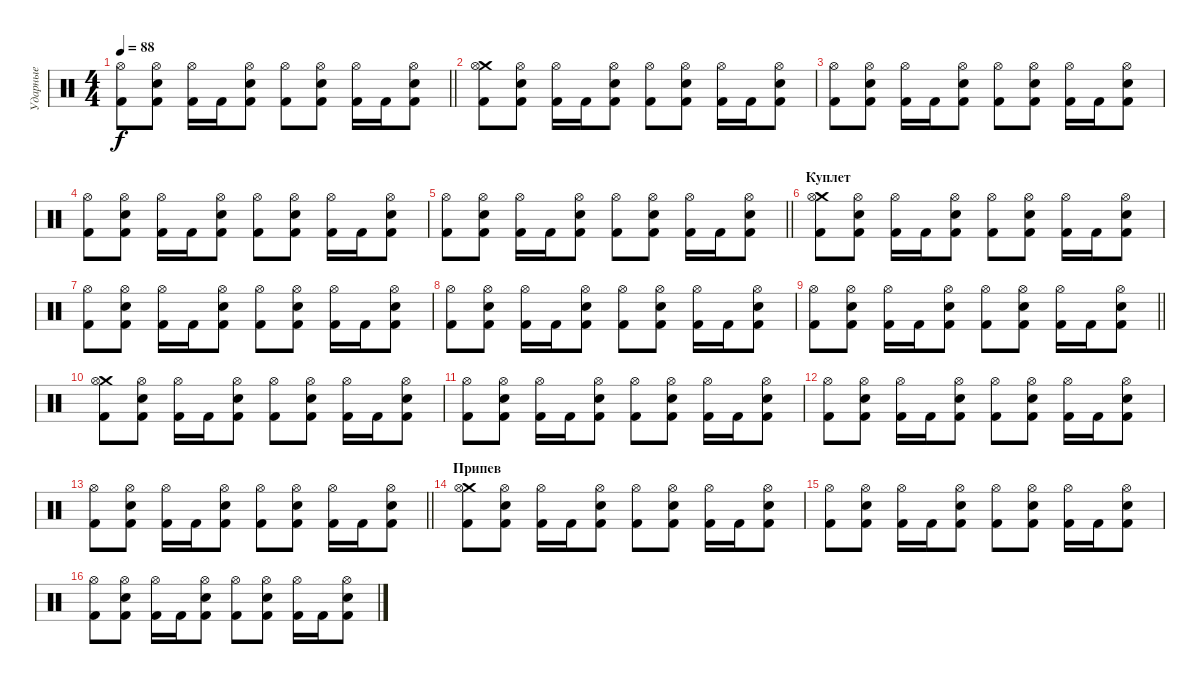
\track ("Ударные" "Ударные") {instrument percussion}
\staff {score}
\articulation defaults
\ts (4 4)
\tempo 88
\clef neutral
\barLineRight lightlight
\ks c
("Kick (hit) 2" "Hi-Hat (open)").8{dy f} ("Snare (hit) 2" "Kick (hit) 2" "Hi-Hat (open)").8 ("Kick (hit) 2" "Hi-Hat (open)").16 "Kick (hit) 2".16 ("Snare (hit) 2" "Kick (hit) 2" "Hi-Hat (open)").8 ("Kick (hit) 2" "Hi-Hat (open)").8 ("Snare (hit) 2" "Kick (hit) 2" "Hi-Hat (open)").8 ("Kick (hit) 2" "Hi-Hat (open)").16 "Kick (hit) 2".16 ("Snare (hit) 2" "Kick (hit) 2" "Hi-Hat (open)").8 |
("Kick (hit) 2" "Crash medium (hit)" "Hi-Hat (open)").8 ("Snare (hit) 2" "Kick (hit) 2" "Hi-Hat (open)").8 ("Kick (hit) 2" "Hi-Hat (open)").16 "Kick (hit) 2".16 ("Snare (hit) 2" "Kick (hit) 2" "Hi-Hat (open)").8 ("Kick (hit) 2" "Hi-Hat (open)").8 ("Snare (hit) 2" "Kick (hit) 2" "Hi-Hat (open)").8 ("Kick (hit) 2" "Hi-Hat (open)").16 "Kick (hit) 2".16 ("Snare (hit) 2" "Kick (hit) 2" "Hi-Hat (open)").8 |
("Kick (hit) 2" "Hi-Hat (open)").8 ("Snare (hit) 2" "Kick (hit) 2" "Hi-Hat (open)").8 ("Kick (hit) 2" "Hi-Hat (open)").16 "Kick (hit) 2".16 ("Snare (hit) 2" "Kick (hit) 2" "Hi-Hat (open)").8 ("Kick (hit) 2" "Hi-Hat (open)").8 ("Snare (hit) 2" "Kick (hit) 2" "Hi-Hat (open)").8 ("Kick (hit) 2" "Hi-Hat (open)").16 "Kick (hit) 2".16 ("Snare (hit) 2" "Kick (hit) 2" "Hi-Hat (open)").8 |
("Kick (hit) 2" "Hi-Hat (open)").8 ("Snare (hit) 2" "Kick (hit) 2" "Hi-Hat (open)").8 ("Kick (hit) 2" "Hi-Hat (open)").16 "Kick (hit) 2".16 ("Snare (hit) 2" "Kick (hit) 2" "Hi-Hat (open)").8 ("Kick (hit) 2" "Hi-Hat (open)").8 ("Snare (hit) 2" "Kick (hit) 2" "Hi-Hat (open)").8 ("Kick (hit) 2" "Hi-Hat (open)").16 "Kick (hit) 2".16 ("Snare (hit) 2" "Kick (hit) 2" "Hi-Hat (open)").8 |
\barLineRight lightlight
("Kick (hit) 2" "Hi-Hat (open)").8 ("Snare (hit) 2" "Kick (hit) 2" "Hi-Hat (open)").8 ("Kick (hit) 2" "Hi-Hat (open)").16 "Kick (hit) 2".16 ("Snare (hit) 2" "Kick (hit) 2" "Hi-Hat (open)").8 ("Kick (hit) 2" "Hi-Hat (open)").8 ("Snare (hit) 2" "Kick (hit) 2" "Hi-Hat (open)").8 ("Kick (hit) 2" "Hi-Hat (open)").16 "Kick (hit) 2".16 ("Snare (hit) 2" "Kick (hit) 2" "Hi-Hat (open)").8 |
\section ("" "Куплет")
("Kick (hit) 2" "Crash medium (hit)" "Hi-Hat (open)").8 ("Snare (hit) 2" "Kick (hit) 2" "Hi-Hat (open)").8 ("Kick (hit) 2" "Hi-Hat (open)").16 "Kick (hit) 2".16 ("Snare (hit) 2" "Kick (hit) 2" "Hi-Hat (open)").8 ("Kick (hit) 2" "Hi-Hat (open)").8 ("Snare (hit) 2" "Kick (hit) 2" "Hi-Hat (open)").8 ("Kick (hit) 2" "Hi-Hat (open)").16 "Kick (hit) 2".16 ("Snare (hit) 2" "Kick (hit) 2" "Hi-Hat (open)").8 |
("Kick (hit) 2" "Hi-Hat (open)").8 ("Snare (hit) 2" "Kick (hit) 2" "Hi-Hat (open)").8 ("Kick (hit) 2" "Hi-Hat (open)").16 "Kick (hit) 2".16 ("Snare (hit) 2" "Kick (hit) 2" "Hi-Hat (open)").8 ("Kick (hit) 2" "Hi-Hat (open)").8 ("Snare (hit) 2" "Kick (hit) 2" "Hi-Hat (open)").8 ("Kick (hit) 2" "Hi-Hat (open)").16 "Kick (hit) 2".16 ("Snare (hit) 2" "Kick (hit) 2" "Hi-Hat (open)").8 |
("Kick (hit) 2" "Hi-Hat (open)").8 ("Snare (hit) 2" "Kick (hit) 2" "Hi-Hat (open)").8 ("Kick (hit) 2" "Hi-Hat (open)").16 "Kick (hit) 2".16 ("Snare (hit) 2" "Kick (hit) 2" "Hi-Hat (open)").8 ("Kick (hit) 2" "Hi-Hat (open)").8 ("Snare (hit) 2" "Kick (hit) 2" "Hi-Hat (open)").8 ("Kick (hit) 2" "Hi-Hat (open)").16 "Kick (hit) 2".16 ("Snare (hit) 2" "Kick (hit) 2" "Hi-Hat (open)").8 |
\barLineRight lightlight
("Kick (hit) 2" "Hi-Hat (open)").8 ("Snare (hit) 2" "Kick (hit) 2" "Hi-Hat (open)").8 ("Kick (hit) 2" "Hi-Hat (open)").16 "Kick (hit) 2".16 ("Snare (hit) 2" "Kick (hit) 2" "Hi-Hat (open)").8 ("Kick (hit) 2" "Hi-Hat (open)").8 ("Snare (hit) 2" "Kick (hit) 2" "Hi-Hat (open)").8 ("Kick (hit) 2" "Hi-Hat (open)").16 "Kick (hit) 2".16 ("Snare (hit) 2" "Kick (hit) 2" "Hi-Hat (open)").8 |
("Kick (hit) 2" "Crash medium (hit)" "Hi-Hat (open)").8 ("Snare (hit) 2" "Kick (hit) 2" "Hi-Hat (open)").8 ("Kick (hit) 2" "Hi-Hat (open)").16 "Kick (hit) 2".16 ("Snare (hit) 2" "Kick (hit) 2" "Hi-Hat (open)").8 ("Kick (hit) 2" "Hi-Hat (open)").8 ("Snare (hit) 2" "Kick (hit) 2" "Hi-Hat (open)").8 ("Kick (hit) 2" "Hi-Hat (open)").16 "Kick (hit) 2".16 ("Snare (hit) 2" "Kick (hit) 2" "Hi-Hat (open)").8 |
("Kick (hit) 2" "Hi-Hat (open)").8 ("Snare (hit) 2" "Kick (hit) 2" "Hi-Hat (open)").8 ("Kick (hit) 2" "Hi-Hat (open)").16 "Kick (hit) 2".16 ("Snare (hit) 2" "Kick (hit) 2" "Hi-Hat (open)").8 ("Kick (hit) 2" "Hi-Hat (open)").8 ("Snare (hit) 2" "Kick (hit) 2" "Hi-Hat (open)").8 ("Kick (hit) 2" "Hi-Hat (open)").16 "Kick (hit) 2".16 ("Snare (hit) 2" "Kick (hit) 2" "Hi-Hat (open)").8 |
("Kick (hit) 2" "Hi-Hat (open)").8 ("Snare (hit) 2" "Kick (hit) 2" "Hi-Hat (open)").8 ("Kick (hit) 2" "Hi-Hat (open)").16 "Kick (hit) 2".16 ("Snare (hit) 2" "Kick (hit) 2" "Hi-Hat (open)").8 ("Kick (hit) 2" "Hi-Hat (open)").8 ("Snare (hit) 2" "Kick (hit) 2" "Hi-Hat (open)").8 ("Kick (hit) 2" "Hi-Hat (open)").16 "Kick (hit) 2".16 ("Snare (hit) 2" "Kick (hit) 2" "Hi-Hat (open)").8 |
\barLineRight lightlight
("Kick (hit) 2" "Hi-Hat (open)").8 ("Snare (hit) 2" "Kick (hit) 2" "Hi-Hat (open)").8 ("Kick (hit) 2" "Hi-Hat (open)").16 "Kick (hit) 2".16 ("Snare (hit) 2" "Kick (hit) 2" "Hi-Hat (open)").8 ("Kick (hit) 2" "Hi-Hat (open)").8 ("Snare (hit) 2" "Kick (hit) 2" "Hi-Hat (open)").8 ("Kick (hit) 2" "Hi-Hat (open)").16 "Kick (hit) 2".16 ("Snare (hit) 2" "Kick (hit) 2" "Hi-Hat (open)").8 |
\section ("" "Припев")
("Kick (hit) 2" "Crash medium (hit)" "Hi-Hat (open)").8 ("Snare (hit) 2" "Kick (hit) 2" "Hi-Hat (open)").8 ("Kick (hit) 2" "Hi-Hat (open)").16 "Kick (hit) 2".16 ("Snare (hit) 2" "Kick (hit) 2" "Hi-Hat (open)").8 ("Kick (hit) 2" "Hi-Hat (open)").8 ("Snare (hit) 2" "Kick (hit) 2" "Hi-Hat (open)").8 ("Kick (hit) 2" "Hi-Hat (open)").16 "Kick (hit) 2".16 ("Snare (hit) 2" "Kick (hit) 2" "Hi-Hat (open)").8 |
("Kick (hit) 2" "Hi-Hat (open)").8 ("Snare (hit) 2" "Kick (hit) 2" "Hi-Hat (open)").8 ("Kick (hit) 2" "Hi-Hat (open)").16 "Kick (hit) 2".16 ("Snare (hit) 2" "Kick (hit) 2" "Hi-Hat (open)").8 ("Kick (hit) 2" "Hi-Hat (open)").8 ("Snare (hit) 2" "Kick (hit) 2" "Hi-Hat (open)").8 ("Kick (hit) 2" "Hi-Hat (open)").16 "Kick (hit) 2".16 ("Snare (hit) 2" "Kick (hit) 2" "Hi-Hat (open)").8 |
("Kick (hit) 2" "Hi-Hat (open)").8 ("Snare (hit) 2" "Kick (hit) 2" "Hi-Hat (open)").8 ("Kick (hit) 2" "Hi-Hat (open)").16 "Kick (hit) 2".16 ("Snare (hit) 2" "Kick (hit) 2" "Hi-Hat (open)").8 ("Kick (hit) 2" "Hi-Hat (open)").8 ("Snare (hit) 2" "Kick (hit) 2" "Hi-Hat (open)").8 ("Kick (hit) 2" "Hi-Hat (open)").16 "Kick (hit) 2".16 ("Snare (hit) 2" "Kick (hit) 2" "Hi-Hat (open)").8
